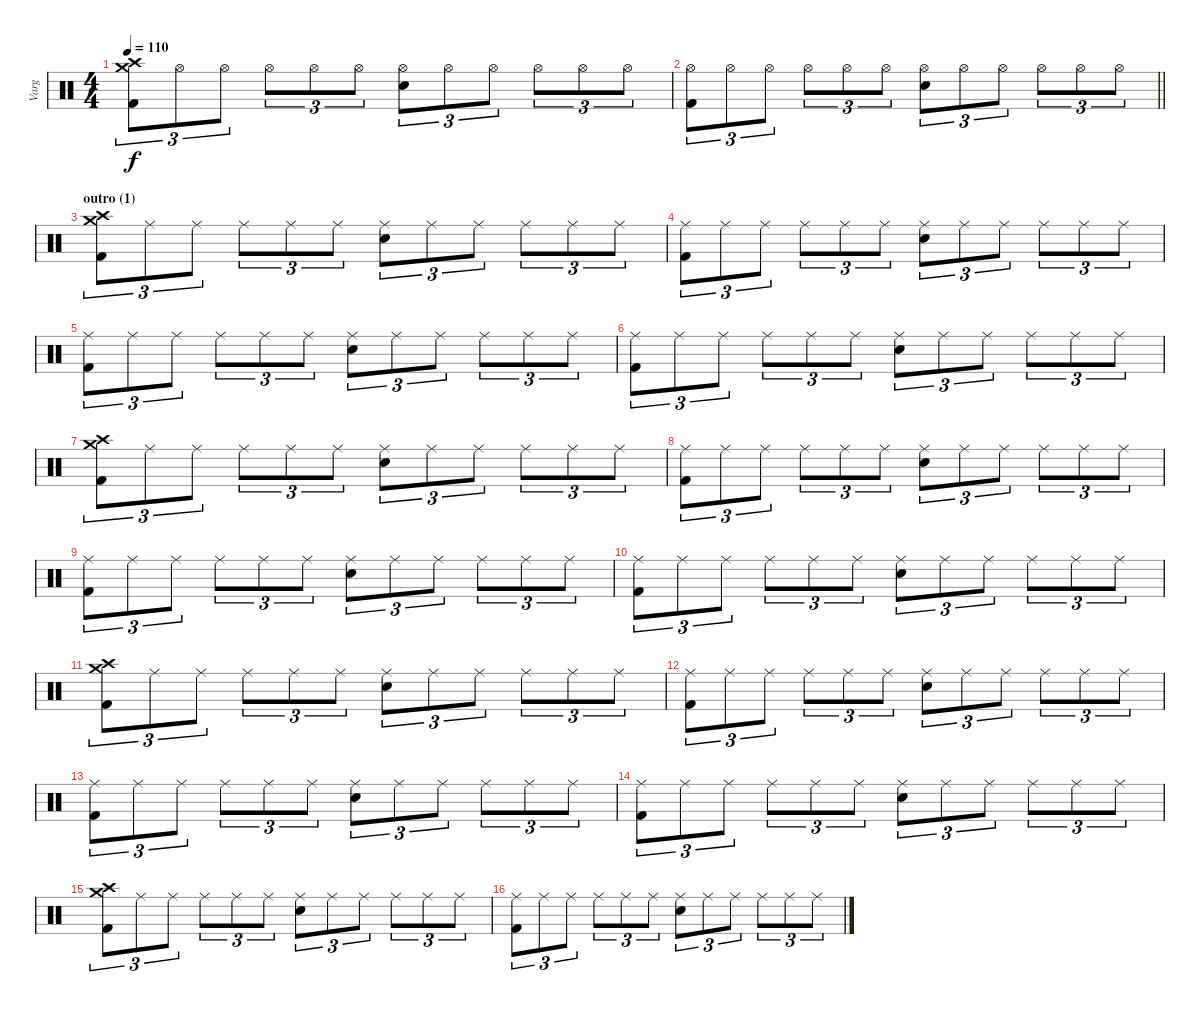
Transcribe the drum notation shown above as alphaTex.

\track ("Varg" "Varg") {instrument percussion}
\staff {score}
\articulation defaults
\ts (4 4)
\tempo 110
\clef neutral
\ks c
("Crash high (hit)" "Crash medium (hit)" "Kick (hit) 2").8{tu (3 2) dy f} "Hi-Hat (open)".8{tu (3 2)} "Hi-Hat (open)".8{tu (3 2)} "Hi-Hat (open)".8{tu (3 2)} "Hi-Hat (open)".8{tu (3 2)} "Hi-Hat (open)".8{tu (3 2)} ("Hi-Hat (open)" "Snare (hit) 2").8{tu (3 2)} "Hi-Hat (open)".8{tu (3 2)} "Hi-Hat (open)".8{tu (3 2)} "Hi-Hat (open)".8{tu (3 2)} "Hi-Hat (open)".8{tu (3 2)} "Hi-Hat (open)".8{tu (3 2)} |
\barLineRight lightlight
("Hi-Hat (open)" "Kick (hit) 2").8{tu (3 2)} "Hi-Hat (open)".8{tu (3 2)} "Hi-Hat (open)".8{tu (3 2)} "Hi-Hat (open)".8{tu (3 2)} "Hi-Hat (open)".8{tu (3 2)} "Hi-Hat (open)".8{tu (3 2)} ("Hi-Hat (open)" "Snare (hit) 2").8{tu (3 2)} "Hi-Hat (open)".8{tu (3 2)} "Hi-Hat (open)".8{tu (3 2)} "Hi-Hat (open)".8{tu (3 2)} "Hi-Hat (open)".8{tu (3 2)} "Hi-Hat (open)".8{tu (3 2)} |
\section ("" "outro (1)")
("Crash high (hit)" "Crash medium (hit)" "Kick (hit) 2").8{tu (3 2)} "Ride (middle)".8{tu (3 2)} "Ride (middle)".8{tu (3 2)} "Ride (middle)".8{tu (3 2)} "Ride (middle)".8{tu (3 2)} "Ride (middle)".8{tu (3 2)} ("Ride (middle)" "Snare (hit) 2").8{tu (3 2)} "Ride (middle)".8{tu (3 2)} "Ride (middle)".8{tu (3 2)} "Ride (middle)".8{tu (3 2)} "Ride (middle)".8{tu (3 2)} "Ride (middle)".8{tu (3 2)} |
("Ride (middle)" "Kick (hit) 2").8{tu (3 2)} "Ride (middle)".8{tu (3 2)} "Ride (middle)".8{tu (3 2)} "Ride (middle)".8{tu (3 2)} "Ride (middle)".8{tu (3 2)} "Ride (middle)".8{tu (3 2)} ("Ride (middle)" "Snare (hit) 2").8{tu (3 2)} "Ride (middle)".8{tu (3 2)} "Ride (middle)".8{tu (3 2)} "Ride (middle)".8{tu (3 2)} "Ride (middle)".8{tu (3 2)} "Ride (middle)".8{tu (3 2)} |
("Ride (middle)" "Kick (hit) 2").8{tu (3 2)} "Ride (middle)".8{tu (3 2)} "Ride (middle)".8{tu (3 2)} "Ride (middle)".8{tu (3 2)} "Ride (middle)".8{tu (3 2)} "Ride (middle)".8{tu (3 2)} ("Ride (middle)" "Snare (hit) 2").8{tu (3 2)} "Ride (middle)".8{tu (3 2)} "Ride (middle)".8{tu (3 2)} "Ride (middle)".8{tu (3 2)} "Ride (middle)".8{tu (3 2)} "Ride (middle)".8{tu (3 2)} |
("Ride (middle)" "Kick (hit) 2").8{tu (3 2)} "Ride (middle)".8{tu (3 2)} "Ride (middle)".8{tu (3 2)} "Ride (middle)".8{tu (3 2)} "Ride (middle)".8{tu (3 2)} "Ride (middle)".8{tu (3 2)} ("Ride (middle)" "Snare (hit) 2").8{tu (3 2)} "Ride (middle)".8{tu (3 2)} "Ride (middle)".8{tu (3 2)} "Ride (middle)".8{tu (3 2)} "Ride (middle)".8{tu (3 2)} "Ride (middle)".8{tu (3 2)} |
("Crash high (hit)" "Crash medium (hit)" "Kick (hit) 2").8{tu (3 2)} "Ride (middle)".8{tu (3 2)} "Ride (middle)".8{tu (3 2)} "Ride (middle)".8{tu (3 2)} "Ride (middle)".8{tu (3 2)} "Ride (middle)".8{tu (3 2)} ("Ride (middle)" "Snare (hit) 2").8{tu (3 2)} "Ride (middle)".8{tu (3 2)} "Ride (middle)".8{tu (3 2)} "Ride (middle)".8{tu (3 2)} "Ride (middle)".8{tu (3 2)} "Ride (middle)".8{tu (3 2)} |
("Ride (middle)" "Kick (hit) 2").8{tu (3 2)} "Ride (middle)".8{tu (3 2)} "Ride (middle)".8{tu (3 2)} "Ride (middle)".8{tu (3 2)} "Ride (middle)".8{tu (3 2)} "Ride (middle)".8{tu (3 2)} ("Ride (middle)" "Snare (hit) 2").8{tu (3 2)} "Ride (middle)".8{tu (3 2)} "Ride (middle)".8{tu (3 2)} "Ride (middle)".8{tu (3 2)} "Ride (middle)".8{tu (3 2)} "Ride (middle)".8{tu (3 2)} |
("Ride (middle)" "Kick (hit) 2").8{tu (3 2)} "Ride (middle)".8{tu (3 2)} "Ride (middle)".8{tu (3 2)} "Ride (middle)".8{tu (3 2)} "Ride (middle)".8{tu (3 2)} "Ride (middle)".8{tu (3 2)} ("Ride (middle)" "Snare (hit) 2").8{tu (3 2)} "Ride (middle)".8{tu (3 2)} "Ride (middle)".8{tu (3 2)} "Ride (middle)".8{tu (3 2)} "Ride (middle)".8{tu (3 2)} "Ride (middle)".8{tu (3 2)} |
("Ride (middle)" "Kick (hit) 2").8{tu (3 2)} "Ride (middle)".8{tu (3 2)} "Ride (middle)".8{tu (3 2)} "Ride (middle)".8{tu (3 2)} "Ride (middle)".8{tu (3 2)} "Ride (middle)".8{tu (3 2)} ("Ride (middle)" "Snare (hit) 2").8{tu (3 2)} "Ride (middle)".8{tu (3 2)} "Ride (middle)".8{tu (3 2)} "Ride (middle)".8{tu (3 2)} "Ride (middle)".8{tu (3 2)} "Ride (middle)".8{tu (3 2)} |
("Crash high (hit)" "Crash medium (hit)" "Kick (hit) 2").8{tu (3 2)} "Ride (middle)".8{tu (3 2)} "Ride (middle)".8{tu (3 2)} "Ride (middle)".8{tu (3 2)} "Ride (middle)".8{tu (3 2)} "Ride (middle)".8{tu (3 2)} ("Ride (middle)" "Snare (hit) 2").8{tu (3 2)} "Ride (middle)".8{tu (3 2)} "Ride (middle)".8{tu (3 2)} "Ride (middle)".8{tu (3 2)} "Ride (middle)".8{tu (3 2)} "Ride (middle)".8{tu (3 2)} |
("Ride (middle)" "Kick (hit) 2").8{tu (3 2)} "Ride (middle)".8{tu (3 2)} "Ride (middle)".8{tu (3 2)} "Ride (middle)".8{tu (3 2)} "Ride (middle)".8{tu (3 2)} "Ride (middle)".8{tu (3 2)} ("Ride (middle)" "Snare (hit) 2").8{tu (3 2)} "Ride (middle)".8{tu (3 2)} "Ride (middle)".8{tu (3 2)} "Ride (middle)".8{tu (3 2)} "Ride (middle)".8{tu (3 2)} "Ride (middle)".8{tu (3 2)} |
("Ride (middle)" "Kick (hit) 2").8{tu (3 2)} "Ride (middle)".8{tu (3 2)} "Ride (middle)".8{tu (3 2)} "Ride (middle)".8{tu (3 2)} "Ride (middle)".8{tu (3 2)} "Ride (middle)".8{tu (3 2)} ("Ride (middle)" "Snare (hit) 2").8{tu (3 2)} "Ride (middle)".8{tu (3 2)} "Ride (middle)".8{tu (3 2)} "Ride (middle)".8{tu (3 2)} "Ride (middle)".8{tu (3 2)} "Ride (middle)".8{tu (3 2)} |
("Ride (middle)" "Kick (hit) 2").8{tu (3 2)} "Ride (middle)".8{tu (3 2)} "Ride (middle)".8{tu (3 2)} "Ride (middle)".8{tu (3 2)} "Ride (middle)".8{tu (3 2)} "Ride (middle)".8{tu (3 2)} ("Ride (middle)" "Snare (hit) 2").8{tu (3 2)} "Ride (middle)".8{tu (3 2)} "Ride (middle)".8{tu (3 2)} "Ride (middle)".8{tu (3 2)} "Ride (middle)".8{tu (3 2)} "Ride (middle)".8{tu (3 2)} |
("Crash high (hit)" "Crash medium (hit)" "Kick (hit) 2").8{tu (3 2)} "Ride (middle)".8{tu (3 2)} "Ride (middle)".8{tu (3 2)} "Ride (middle)".8{tu (3 2)} "Ride (middle)".8{tu (3 2)} "Ride (middle)".8{tu (3 2)} ("Ride (middle)" "Snare (hit) 2").8{tu (3 2)} "Ride (middle)".8{tu (3 2)} "Ride (middle)".8{tu (3 2)} "Ride (middle)".8{tu (3 2)} "Ride (middle)".8{tu (3 2)} "Ride (middle)".8{tu (3 2)} |
("Ride (middle)" "Kick (hit) 2").8{tu (3 2)} "Ride (middle)".8{tu (3 2)} "Ride (middle)".8{tu (3 2)} "Ride (middle)".8{tu (3 2)} "Ride (middle)".8{tu (3 2)} "Ride (middle)".8{tu (3 2)} ("Ride (middle)" "Snare (hit) 2").8{tu (3 2)} "Ride (middle)".8{tu (3 2)} "Ride (middle)".8{tu (3 2)} "Ride (middle)".8{tu (3 2)} "Ride (middle)".8{tu (3 2)} "Ride (middle)".8{tu (3 2)}
